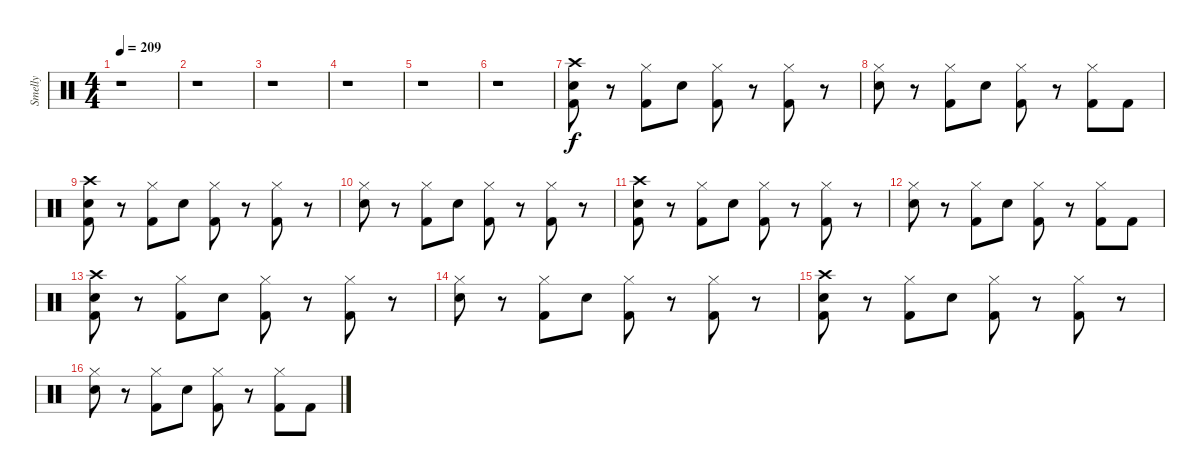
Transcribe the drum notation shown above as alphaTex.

\track ("Smelly" "Smelly") {instrument percussion}
\staff {score}
\articulation defaults
\ts (4 4)
\tempo 209
\clef neutral
\ks c
r.1{dy f} |
r.1 |
r.1 |
r.1 |
r.1 |
r.1 |
("Crash high (hit)" "Electric Snare (hit)" "Kick (hit) 2").8 r.8 ("Hi-Hat (closed)" "Kick (hit) 2").8 "Electric Snare (hit)".8 ("Hi-Hat (closed)" "Kick (hit) 2").8 r.8 ("Hi-Hat (closed)" "Kick (hit) 2").8 r.8 |
("Hi-Hat (closed)" "Electric Snare (hit)").8 r.8 ("Hi-Hat (closed)" "Kick (hit) 2").8 "Electric Snare (hit)".8 ("Hi-Hat (closed)" "Kick (hit) 2").8 r.8 ("Hi-Hat (closed)" "Kick (hit) 2").8 "Kick (hit) 2".8 |
("Crash high (hit)" "Electric Snare (hit)" "Kick (hit) 2").8 r.8 ("Hi-Hat (closed)" "Kick (hit) 2").8 "Electric Snare (hit)".8 ("Hi-Hat (closed)" "Kick (hit) 2").8 r.8 ("Hi-Hat (closed)" "Kick (hit) 2").8 r.8 |
("Hi-Hat (closed)" "Electric Snare (hit)").8 r.8 ("Hi-Hat (closed)" "Kick (hit) 2").8 "Electric Snare (hit)".8 ("Hi-Hat (closed)" "Kick (hit) 2").8 r.8 ("Hi-Hat (closed)" "Kick (hit) 2").8 r.8 |
("Crash high (hit)" "Electric Snare (hit)" "Kick (hit) 2").8 r.8 ("Hi-Hat (closed)" "Kick (hit) 2").8 "Electric Snare (hit)".8 ("Hi-Hat (closed)" "Kick (hit) 2").8 r.8 ("Hi-Hat (closed)" "Kick (hit) 2").8 r.8 |
("Hi-Hat (closed)" "Electric Snare (hit)").8 r.8 ("Hi-Hat (closed)" "Kick (hit) 2").8 "Electric Snare (hit)".8 ("Hi-Hat (closed)" "Kick (hit) 2").8 r.8 ("Hi-Hat (closed)" "Kick (hit) 2").8 "Kick (hit) 2".8 |
("Crash high (hit)" "Electric Snare (hit)" "Kick (hit) 2").8 r.8 ("Hi-Hat (closed)" "Kick (hit) 2").8 "Electric Snare (hit)".8 ("Hi-Hat (closed)" "Kick (hit) 2").8 r.8 ("Hi-Hat (closed)" "Kick (hit) 2").8 r.8 |
("Hi-Hat (closed)" "Electric Snare (hit)").8 r.8 ("Hi-Hat (closed)" "Kick (hit) 2").8 "Electric Snare (hit)".8 ("Hi-Hat (closed)" "Kick (hit) 2").8 r.8 ("Hi-Hat (closed)" "Kick (hit) 2").8 r.8 |
("Crash high (hit)" "Electric Snare (hit)" "Kick (hit) 2").8 r.8 ("Hi-Hat (closed)" "Kick (hit) 2").8 "Electric Snare (hit)".8 ("Hi-Hat (closed)" "Kick (hit) 2").8 r.8 ("Hi-Hat (closed)" "Kick (hit) 2").8 r.8 |
("Hi-Hat (closed)" "Electric Snare (hit)").8 r.8 ("Hi-Hat (closed)" "Kick (hit) 2").8 "Electric Snare (hit)".8 ("Hi-Hat (closed)" "Kick (hit) 2").8 r.8 ("Hi-Hat (closed)" "Kick (hit) 2").8 "Kick (hit) 2".8
